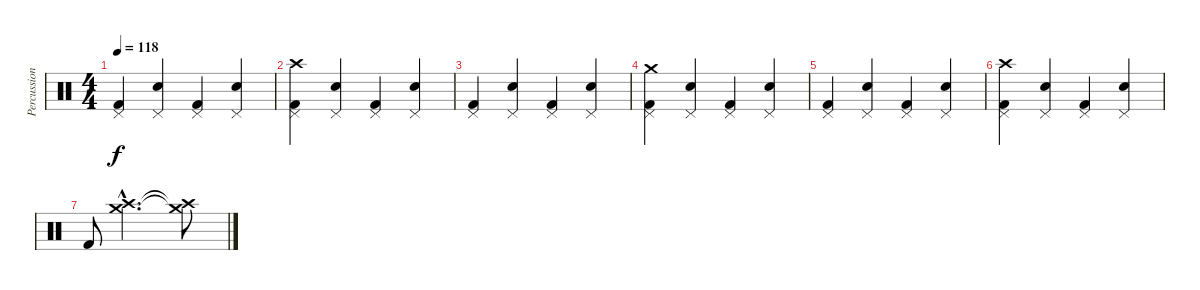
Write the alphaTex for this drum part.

\track ("Percussion" "Percussion") {instrument percussion}
\staff {score}
\articulation defaults
\ts (4 4)
\tempo 118
\clef neutral
\ks c
("Pedal Hi-Hat (hit)" "Kick (hit) 2").4{dy f} ("Pedal Hi-Hat (hit)" "Electric Snare (hit)").4 ("Pedal Hi-Hat (hit)" "Kick (hit) 2").4 ("Pedal Hi-Hat (hit)" "Electric Snare (hit)").4 |
("Crash high (hit)" "Pedal Hi-Hat (hit)" "Kick (hit) 2").4 ("Pedal Hi-Hat (hit)" "Electric Snare (hit)").4 ("Pedal Hi-Hat (hit)" "Kick (hit) 2").4 ("Pedal Hi-Hat (hit)" "Electric Snare (hit)").4 |
("Pedal Hi-Hat (hit)" "Kick (hit) 2").4 ("Pedal Hi-Hat (hit)" "Electric Snare (hit)").4 ("Pedal Hi-Hat (hit)" "Kick (hit) 2").4 ("Pedal Hi-Hat (hit)" "Electric Snare (hit)").4 |
("Crash medium (hit)" "Pedal Hi-Hat (hit)" "Kick (hit) 2").4 ("Pedal Hi-Hat (hit)" "Electric Snare (hit)").4 ("Pedal Hi-Hat (hit)" "Kick (hit) 2").4 ("Pedal Hi-Hat (hit)" "Electric Snare (hit)").4 |
("Pedal Hi-Hat (hit)" "Kick (hit) 2").4 ("Pedal Hi-Hat (hit)" "Electric Snare (hit)").4 ("Pedal Hi-Hat (hit)" "Kick (hit) 2").4 ("Pedal Hi-Hat (hit)" "Electric Snare (hit)").4 |
("Crash high (hit)" "Pedal Hi-Hat (hit)" "Kick (hit) 2").4 ("Pedal Hi-Hat (hit)" "Electric Snare (hit)").4 ("Pedal Hi-Hat (hit)" "Kick (hit) 2").4 ("Pedal Hi-Hat (hit)" "Electric Snare (hit)").4 |
"Kick (hit) 2".8 ("Crash high (hit)"{hac} "Crash medium (hit)"{hac}).2{d} ("Crash high (hit)"{t} "Crash medium (hit)"{t}).8
